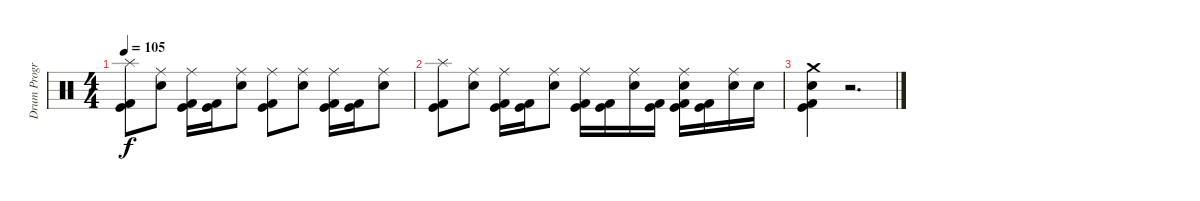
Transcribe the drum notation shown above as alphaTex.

\track ("Drum Program - BG" "Drum Progr") {instrument percussion}
\staff {score}
\articulation defaults
\ts (4 4)
\tempo 105
\clef neutral
\ks c
("Kick (hit)" "Kick (hit) 2" "Splash (hit)").8{dy f} ("Snare (hit) 2" "Ride (middle)").8 ("Kick (hit)" "Kick (hit) 2" "Ride (middle)").16 ("Kick (hit)" "Kick (hit) 2").16 ("Snare (hit) 2" "Ride (middle)").8 ("Kick (hit)" "Kick (hit) 2" "Ride (middle)").8 ("Snare (hit) 2" "Ride (middle)").8 ("Kick (hit)" "Kick (hit) 2" "Ride (middle)").16 ("Kick (hit)" "Kick (hit) 2").16 ("Snare (hit) 2" "Ride (middle)").8 |
("Kick (hit)" "Kick (hit) 2" "Splash (hit)").8 ("Snare (hit) 2" "Ride (middle)").8 ("Kick (hit)" "Kick (hit) 2" "Ride (middle)").16 ("Kick (hit)" "Kick (hit) 2").16 ("Snare (hit) 2" "Ride (middle)").8 ("Kick (hit)" "Kick (hit) 2" "Ride (middle)").16 ("Kick (hit)" "Kick (hit) 2").16 ("Electric Snare (hit)" "Ride (middle)").16 ("Kick (hit)" "Kick (hit) 2").16 ("Kick (hit)" "Kick (hit) 2" "Electric Snare (hit)" "Ride (middle)").16 ("Kick (hit)" "Kick (hit) 2").16 ("Electric Snare (hit)" "Ride (middle)").16 "Electric Snare (hit)".16 |
("Kick (hit) 2" "Kick (hit)" "Crash medium (hit)" "Electric Snare (hit)").4 r.2{d}
